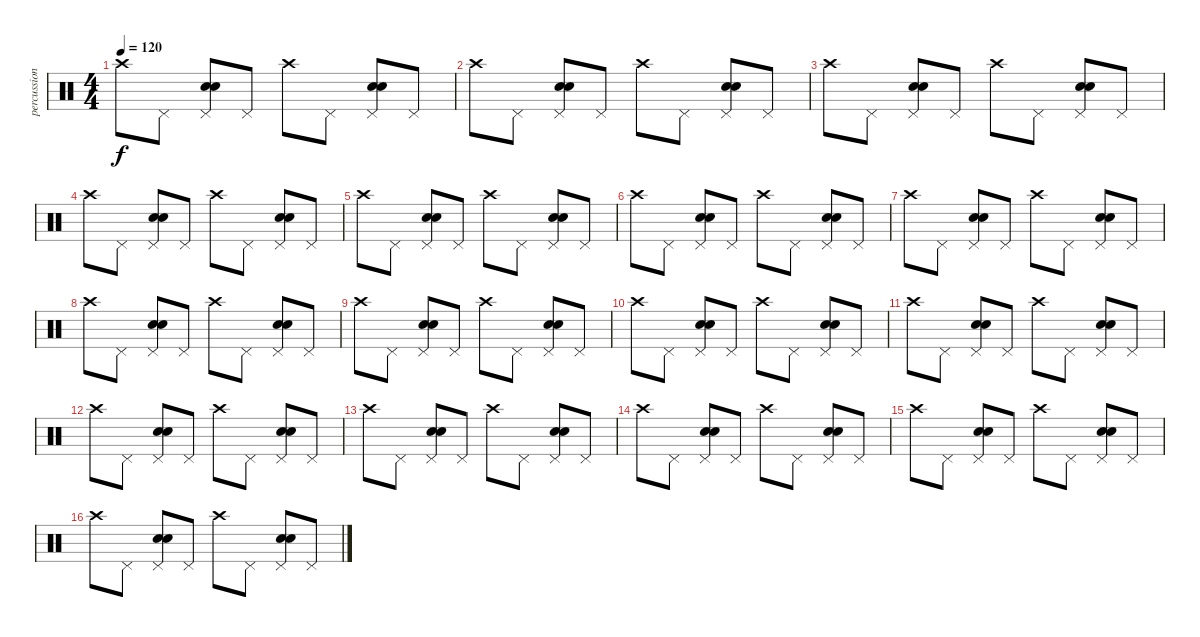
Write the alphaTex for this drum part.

\track ("percussion" "percussion") {instrument percussion}
\staff {score}
\articulation defaults
\ts (4 4)
\tempo 120
\clef neutral
\ks c "Crash high (hit)".8{dy f} "Pedal Hi-Hat (hit)".8
("Pedal Hi-Hat (hit)" "Snare (hit) 2" "Snare (hit) 2").8 "Pedal Hi-Hat (hit)".8 "Crash high (hit)".8 "Pedal Hi-Hat (hit)".8 ("Pedal Hi-Hat (hit)" "Snare (hit) 2" "Snare (hit) 2").8 "Pedal Hi-Hat (hit)".8 |
"Crash high (hit)".8 "Pedal Hi-Hat (hit)".8 ("Pedal Hi-Hat (hit)" "Snare (hit) 2" "Snare (hit) 2").8 "Pedal Hi-Hat (hit)".8 "Crash high (hit)".8 "Pedal Hi-Hat (hit)".8 ("Pedal Hi-Hat (hit)" "Snare (hit) 2" "Snare (hit) 2").8 "Pedal Hi-Hat (hit)".8 |
"Crash high (hit)".8 "Pedal Hi-Hat (hit)".8 ("Pedal Hi-Hat (hit)" "Snare (hit) 2" "Snare (hit) 2").8 "Pedal Hi-Hat (hit)".8 "Crash high (hit)".8 "Pedal Hi-Hat (hit)".8 ("Pedal Hi-Hat (hit)" "Snare (hit) 2" "Snare (hit) 2").8 "Pedal Hi-Hat (hit)".8 |
"Crash high (hit)".8 "Pedal Hi-Hat (hit)".8 ("Pedal Hi-Hat (hit)" "Snare (hit) 2" "Snare (hit) 2").8 "Pedal Hi-Hat (hit)".8 "Crash high (hit)".8 "Pedal Hi-Hat (hit)".8 ("Pedal Hi-Hat (hit)" "Snare (hit) 2" "Snare (hit) 2").8 "Pedal Hi-Hat (hit)".8 |
"Crash high (hit)".8 "Pedal Hi-Hat (hit)".8 ("Pedal Hi-Hat (hit)" "Snare (hit) 2" "Snare (hit) 2").8 "Pedal Hi-Hat (hit)".8 "Crash high (hit)".8 "Pedal Hi-Hat (hit)".8 ("Pedal Hi-Hat (hit)" "Snare (hit) 2" "Snare (hit) 2").8 "Pedal Hi-Hat (hit)".8 |
"Crash high (hit)".8 "Pedal Hi-Hat (hit)".8 ("Pedal Hi-Hat (hit)" "Snare (hit) 2" "Snare (hit) 2").8 "Pedal Hi-Hat (hit)".8 "Crash high (hit)".8 "Pedal Hi-Hat (hit)".8 ("Pedal Hi-Hat (hit)" "Snare (hit) 2" "Snare (hit) 2").8 "Pedal Hi-Hat (hit)".8 |
"Crash high (hit)".8 "Pedal Hi-Hat (hit)".8 ("Pedal Hi-Hat (hit)" "Snare (hit) 2" "Snare (hit) 2").8 "Pedal Hi-Hat (hit)".8 "Crash high (hit)".8 "Pedal Hi-Hat (hit)".8 ("Pedal Hi-Hat (hit)" "Snare (hit) 2" "Snare (hit) 2").8 "Pedal Hi-Hat (hit)".8 |
"Crash high (hit)".8 "Pedal Hi-Hat (hit)".8 ("Pedal Hi-Hat (hit)" "Snare (hit) 2" "Snare (hit) 2").8 "Pedal Hi-Hat (hit)".8 "Crash high (hit)".8 "Pedal Hi-Hat (hit)".8 ("Pedal Hi-Hat (hit)" "Snare (hit) 2" "Snare (hit) 2").8 "Pedal Hi-Hat (hit)".8 |
"Crash high (hit)".8 "Pedal Hi-Hat (hit)".8 ("Pedal Hi-Hat (hit)" "Snare (hit) 2" "Snare (hit) 2").8 "Pedal Hi-Hat (hit)".8 "Crash high (hit)".8 "Pedal Hi-Hat (hit)".8 ("Pedal Hi-Hat (hit)" "Snare (hit) 2" "Snare (hit) 2").8 "Pedal Hi-Hat (hit)".8 |
"Crash high (hit)".8 "Pedal Hi-Hat (hit)".8 ("Pedal Hi-Hat (hit)" "Snare (hit) 2" "Snare (hit) 2").8 "Pedal Hi-Hat (hit)".8 "Crash high (hit)".8 "Pedal Hi-Hat (hit)".8 ("Pedal Hi-Hat (hit)" "Snare (hit) 2" "Snare (hit) 2").8 "Pedal Hi-Hat (hit)".8 |
"Crash high (hit)".8 "Pedal Hi-Hat (hit)".8 ("Pedal Hi-Hat (hit)" "Snare (hit) 2" "Snare (hit) 2").8 "Pedal Hi-Hat (hit)".8 "Crash high (hit)".8 "Pedal Hi-Hat (hit)".8 ("Pedal Hi-Hat (hit)" "Snare (hit) 2" "Snare (hit) 2").8 "Pedal Hi-Hat (hit)".8 |
"Crash high (hit)".8 "Pedal Hi-Hat (hit)".8 ("Pedal Hi-Hat (hit)" "Snare (hit) 2" "Snare (hit) 2").8 "Pedal Hi-Hat (hit)".8 "Crash high (hit)".8 "Pedal Hi-Hat (hit)".8 ("Pedal Hi-Hat (hit)" "Snare (hit) 2" "Snare (hit) 2").8 "Pedal Hi-Hat (hit)".8 |
"Crash high (hit)".8 "Pedal Hi-Hat (hit)".8 ("Pedal Hi-Hat (hit)" "Snare (hit) 2" "Snare (hit) 2").8 "Pedal Hi-Hat (hit)".8 "Crash high (hit)".8 "Pedal Hi-Hat (hit)".8 ("Pedal Hi-Hat (hit)" "Snare (hit) 2" "Snare (hit) 2").8 "Pedal Hi-Hat (hit)".8 |
"Crash high (hit)".8 "Pedal Hi-Hat (hit)".8 ("Pedal Hi-Hat (hit)" "Snare (hit) 2" "Snare (hit) 2").8 "Pedal Hi-Hat (hit)".8 "Crash high (hit)".8 "Pedal Hi-Hat (hit)".8 ("Pedal Hi-Hat (hit)" "Snare (hit) 2" "Snare (hit) 2").8 "Pedal Hi-Hat (hit)".8 |
"Crash high (hit)".8 "Pedal Hi-Hat (hit)".8 ("Pedal Hi-Hat (hit)" "Snare (hit) 2" "Snare (hit) 2").8 "Pedal Hi-Hat (hit)".8 "Crash high (hit)".8 "Pedal Hi-Hat (hit)".8 ("Pedal Hi-Hat (hit)" "Snare (hit) 2" "Snare (hit) 2").8 "Pedal Hi-Hat (hit)".8 |
"Crash high (hit)".8 "Pedal Hi-Hat (hit)".8 ("Pedal Hi-Hat (hit)" "Snare (hit) 2" "Snare (hit) 2").8 "Pedal Hi-Hat (hit)".8 "Crash high (hit)".8 "Pedal Hi-Hat (hit)".8 ("Pedal Hi-Hat (hit)" "Snare (hit) 2" "Snare (hit) 2").8 "Pedal Hi-Hat (hit)".8
